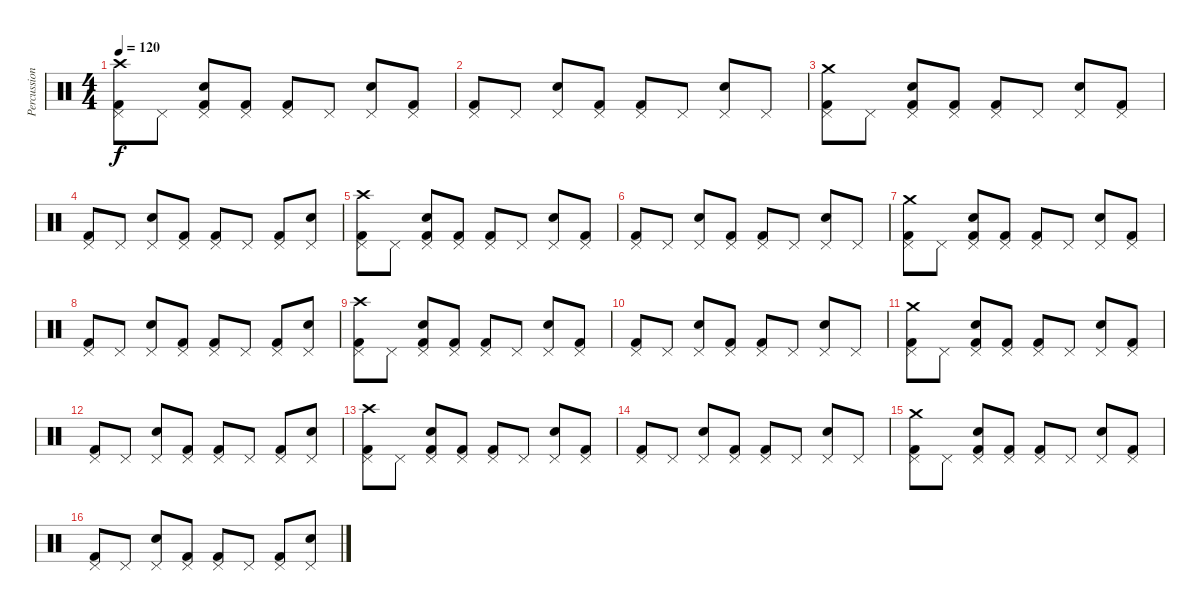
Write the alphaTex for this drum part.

\track ("Percussion" "Percussion") {instrument percussion}
\staff {score}
\articulation defaults
\ts (4 4)
\tempo 120
\clef neutral
\ks c
("Crash high (hit)" "Pedal Hi-Hat (hit)" "Kick (hit) 2").8{dy f} "Pedal Hi-Hat (hit)".8 ("Snare (hit) 2" "Pedal Hi-Hat (hit)" "Kick (hit) 2").8 ("Pedal Hi-Hat (hit)" "Kick (hit) 2").8 ("Pedal Hi-Hat (hit)" "Kick (hit) 2").8 "Pedal Hi-Hat (hit)".8 ("Snare (hit) 2" "Pedal Hi-Hat (hit)").8 ("Pedal Hi-Hat (hit)" "Kick (hit) 2").8 |
("Pedal Hi-Hat (hit)" "Kick (hit) 2").8 "Pedal Hi-Hat (hit)".8 ("Snare (hit) 2" "Pedal Hi-Hat (hit)").8 ("Pedal Hi-Hat (hit)" "Kick (hit) 2").8 ("Pedal Hi-Hat (hit)" "Kick (hit) 2").8 "Pedal Hi-Hat (hit)".8 ("Snare (hit) 2" "Pedal Hi-Hat (hit)").8 "Pedal Hi-Hat (hit)".8 |
("Crash medium (hit)" "Pedal Hi-Hat (hit)" "Kick (hit) 2").8 "Pedal Hi-Hat (hit)".8 ("Snare (hit) 2" "Pedal Hi-Hat (hit)" "Kick (hit) 2").8 ("Pedal Hi-Hat (hit)" "Kick (hit) 2").8 ("Pedal Hi-Hat (hit)" "Kick (hit) 2").8 "Pedal Hi-Hat (hit)".8 ("Snare (hit) 2" "Pedal Hi-Hat (hit)").8 ("Pedal Hi-Hat (hit)" "Kick (hit) 2").8 |
("Pedal Hi-Hat (hit)" "Kick (hit) 2").8 "Pedal Hi-Hat (hit)".8 ("Snare (hit) 2" "Pedal Hi-Hat (hit)").8 ("Pedal Hi-Hat (hit)" "Kick (hit) 2").8 ("Pedal Hi-Hat (hit)" "Kick (hit) 2").8 "Pedal Hi-Hat (hit)".8 ("Pedal Hi-Hat (hit)" "Kick (hit) 2").8 ("Snare (hit) 2" "Pedal Hi-Hat (hit)").8 |
("Crash high (hit)" "Pedal Hi-Hat (hit)" "Kick (hit) 2").8 "Pedal Hi-Hat (hit)".8 ("Snare (hit) 2" "Pedal Hi-Hat (hit)" "Kick (hit) 2").8 ("Pedal Hi-Hat (hit)" "Kick (hit) 2").8 ("Pedal Hi-Hat (hit)" "Kick (hit) 2").8 "Pedal Hi-Hat (hit)".8 ("Snare (hit) 2" "Pedal Hi-Hat (hit)").8 ("Pedal Hi-Hat (hit)" "Kick (hit) 2").8 |
("Pedal Hi-Hat (hit)" "Kick (hit) 2").8 "Pedal Hi-Hat (hit)".8 ("Snare (hit) 2" "Pedal Hi-Hat (hit)").8 ("Pedal Hi-Hat (hit)" "Kick (hit) 2").8 ("Pedal Hi-Hat (hit)" "Kick (hit) 2").8 "Pedal Hi-Hat (hit)".8 ("Snare (hit) 2" "Pedal Hi-Hat (hit)").8 "Pedal Hi-Hat (hit)".8 |
("Crash medium (hit)" "Pedal Hi-Hat (hit)" "Kick (hit) 2").8 "Pedal Hi-Hat (hit)".8 ("Snare (hit) 2" "Pedal Hi-Hat (hit)" "Kick (hit) 2").8 ("Pedal Hi-Hat (hit)" "Kick (hit) 2").8 ("Pedal Hi-Hat (hit)" "Kick (hit) 2").8 "Pedal Hi-Hat (hit)".8 ("Snare (hit) 2" "Pedal Hi-Hat (hit)").8 ("Pedal Hi-Hat (hit)" "Kick (hit) 2").8 |
("Pedal Hi-Hat (hit)" "Kick (hit) 2").8 "Pedal Hi-Hat (hit)".8 ("Snare (hit) 2" "Pedal Hi-Hat (hit)").8 ("Pedal Hi-Hat (hit)" "Kick (hit) 2").8 ("Pedal Hi-Hat (hit)" "Kick (hit) 2").8 "Pedal Hi-Hat (hit)".8 ("Pedal Hi-Hat (hit)" "Kick (hit) 2").8 ("Snare (hit) 2" "Pedal Hi-Hat (hit)").8 |
("Crash high (hit)" "Pedal Hi-Hat (hit)" "Kick (hit) 2").8 "Pedal Hi-Hat (hit)".8 ("Snare (hit) 2" "Pedal Hi-Hat (hit)" "Kick (hit) 2").8 ("Pedal Hi-Hat (hit)" "Kick (hit) 2").8 ("Pedal Hi-Hat (hit)" "Kick (hit) 2").8 "Pedal Hi-Hat (hit)".8 ("Snare (hit) 2" "Pedal Hi-Hat (hit)").8 ("Pedal Hi-Hat (hit)" "Kick (hit) 2").8 |
("Pedal Hi-Hat (hit)" "Kick (hit) 2").8 "Pedal Hi-Hat (hit)".8 ("Snare (hit) 2" "Pedal Hi-Hat (hit)").8 ("Pedal Hi-Hat (hit)" "Kick (hit) 2").8 ("Pedal Hi-Hat (hit)" "Kick (hit) 2").8 "Pedal Hi-Hat (hit)".8 ("Snare (hit) 2" "Pedal Hi-Hat (hit)").8 "Pedal Hi-Hat (hit)".8 |
("Crash medium (hit)" "Pedal Hi-Hat (hit)" "Kick (hit) 2").8 "Pedal Hi-Hat (hit)".8 ("Snare (hit) 2" "Pedal Hi-Hat (hit)" "Kick (hit) 2").8 ("Pedal Hi-Hat (hit)" "Kick (hit) 2").8 ("Pedal Hi-Hat (hit)" "Kick (hit) 2").8 "Pedal Hi-Hat (hit)".8 ("Snare (hit) 2" "Pedal Hi-Hat (hit)").8 ("Pedal Hi-Hat (hit)" "Kick (hit) 2").8 |
("Pedal Hi-Hat (hit)" "Kick (hit) 2").8 "Pedal Hi-Hat (hit)".8 ("Snare (hit) 2" "Pedal Hi-Hat (hit)").8 ("Pedal Hi-Hat (hit)" "Kick (hit) 2").8 ("Pedal Hi-Hat (hit)" "Kick (hit) 2").8 "Pedal Hi-Hat (hit)".8 ("Pedal Hi-Hat (hit)" "Kick (hit) 2").8 ("Snare (hit) 2" "Pedal Hi-Hat (hit)").8 |
("Crash high (hit)" "Pedal Hi-Hat (hit)" "Kick (hit) 2").8 "Pedal Hi-Hat (hit)".8 ("Snare (hit) 2" "Pedal Hi-Hat (hit)" "Kick (hit) 2").8 ("Pedal Hi-Hat (hit)" "Kick (hit) 2").8 ("Pedal Hi-Hat (hit)" "Kick (hit) 2").8 "Pedal Hi-Hat (hit)".8 ("Snare (hit) 2" "Pedal Hi-Hat (hit)").8 ("Pedal Hi-Hat (hit)" "Kick (hit) 2").8 |
("Pedal Hi-Hat (hit)" "Kick (hit) 2").8 "Pedal Hi-Hat (hit)".8 ("Snare (hit) 2" "Pedal Hi-Hat (hit)").8 ("Pedal Hi-Hat (hit)" "Kick (hit) 2").8 ("Pedal Hi-Hat (hit)" "Kick (hit) 2").8 "Pedal Hi-Hat (hit)".8 ("Snare (hit) 2" "Pedal Hi-Hat (hit)").8 "Pedal Hi-Hat (hit)".8 |
("Crash medium (hit)" "Pedal Hi-Hat (hit)" "Kick (hit) 2").8 "Pedal Hi-Hat (hit)".8 ("Snare (hit) 2" "Pedal Hi-Hat (hit)" "Kick (hit) 2").8 ("Pedal Hi-Hat (hit)" "Kick (hit) 2").8 ("Pedal Hi-Hat (hit)" "Kick (hit) 2").8 "Pedal Hi-Hat (hit)".8 ("Snare (hit) 2" "Pedal Hi-Hat (hit)").8 ("Pedal Hi-Hat (hit)" "Kick (hit) 2").8 |
("Pedal Hi-Hat (hit)" "Kick (hit) 2").8 "Pedal Hi-Hat (hit)".8 ("Snare (hit) 2" "Pedal Hi-Hat (hit)").8 ("Pedal Hi-Hat (hit)" "Kick (hit) 2").8 ("Pedal Hi-Hat (hit)" "Kick (hit) 2").8 "Pedal Hi-Hat (hit)".8 ("Pedal Hi-Hat (hit)" "Kick (hit) 2").8 ("Snare (hit) 2" "Pedal Hi-Hat (hit)").8
